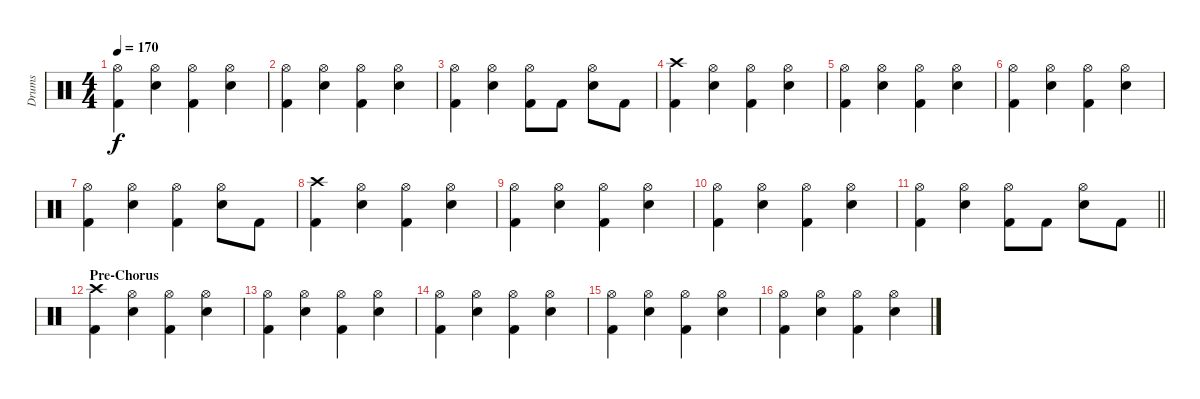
\track ("Drums" "Drums") {instrument percussion}
\staff {score}
\articulation defaults
\ts (4 4)
\tempo 170
\clef neutral
\ks c
("Hi-Hat (open)" "Kick (hit) 2").4{dy f} ("Hi-Hat (open)" "Snare (hit) 2").4 ("Hi-Hat (open)" "Kick (hit) 2").4 ("Hi-Hat (open)" "Snare (hit) 2").4 |
("Hi-Hat (open)" "Kick (hit) 2").4 ("Hi-Hat (open)" "Snare (hit) 2").4 ("Hi-Hat (open)" "Kick (hit) 2").4 ("Hi-Hat (open)" "Snare (hit) 2").4 |
("Hi-Hat (open)" "Kick (hit) 2").4 ("Hi-Hat (open)" "Snare (hit) 2").4 ("Hi-Hat (open)" "Kick (hit) 2").8 "Kick (hit) 2".8 ("Hi-Hat (open)" "Snare (hit) 2").8 "Kick (hit) 2".8 |
("Crash high (hit)" "Kick (hit) 2").4 ("Hi-Hat (open)" "Snare (hit) 2").4 ("Hi-Hat (open)" "Kick (hit) 2").4 ("Hi-Hat (open)" "Snare (hit) 2").4 |
("Hi-Hat (open)" "Kick (hit) 2").4 ("Hi-Hat (open)" "Snare (hit) 2").4 ("Hi-Hat (open)" "Kick (hit) 2").4 ("Hi-Hat (open)" "Snare (hit) 2").4 |
("Hi-Hat (open)" "Kick (hit) 2").4 ("Hi-Hat (open)" "Snare (hit) 2").4 ("Hi-Hat (open)" "Kick (hit) 2").4 ("Hi-Hat (open)" "Snare (hit) 2").4 |
("Hi-Hat (open)" "Kick (hit) 2").4 ("Hi-Hat (open)" "Snare (hit) 2").4 ("Hi-Hat (open)" "Kick (hit) 2").4 ("Hi-Hat (open)" "Snare (hit) 2").8 "Kick (hit) 2".8 |
("Crash high (hit)" "Kick (hit) 2").4 ("Hi-Hat (open)" "Snare (hit) 2").4 ("Hi-Hat (open)" "Kick (hit) 2").4 ("Hi-Hat (open)" "Snare (hit) 2").4 |
("Hi-Hat (open)" "Kick (hit) 2").4 ("Hi-Hat (open)" "Snare (hit) 2").4 ("Hi-Hat (open)" "Kick (hit) 2").4 ("Hi-Hat (open)" "Snare (hit) 2").4 |
("Hi-Hat (open)" "Kick (hit) 2").4 ("Hi-Hat (open)" "Snare (hit) 2").4 ("Hi-Hat (open)" "Kick (hit) 2").4 ("Hi-Hat (open)" "Snare (hit) 2").4 |
\barLineRight lightlight
("Hi-Hat (open)" "Kick (hit) 2").4 ("Hi-Hat (open)" "Snare (hit) 2").4 ("Hi-Hat (open)" "Kick (hit) 2").8 "Kick (hit) 2".8 ("Hi-Hat (open)" "Snare (hit) 2").8 "Kick (hit) 2".8 |
\section ("" "Pre-Chorus")
("Crash high (hit)" "Kick (hit) 2").4 ("Hi-Hat (open)" "Snare (hit) 2").4 ("Hi-Hat (open)" "Kick (hit) 2").4 ("Hi-Hat (open)" "Snare (hit) 2").4 |
("Hi-Hat (open)" "Kick (hit) 2").4 ("Hi-Hat (open)" "Snare (hit) 2").4 ("Hi-Hat (open)" "Kick (hit) 2").4 ("Hi-Hat (open)" "Snare (hit) 2").4 |
("Hi-Hat (open)" "Kick (hit) 2").4 ("Hi-Hat (open)" "Snare (hit) 2").4 ("Hi-Hat (open)" "Kick (hit) 2").4 ("Hi-Hat (open)" "Snare (hit) 2").4 |
("Hi-Hat (open)" "Kick (hit) 2").4 ("Hi-Hat (open)" "Snare (hit) 2").4 ("Hi-Hat (open)" "Kick (hit) 2").4 ("Hi-Hat (open)" "Snare (hit) 2").4 |
("Hi-Hat (open)" "Kick (hit) 2").4 ("Hi-Hat (open)" "Snare (hit) 2").4 ("Hi-Hat (open)" "Kick (hit) 2").4 ("Hi-Hat (open)" "Snare (hit) 2").4
